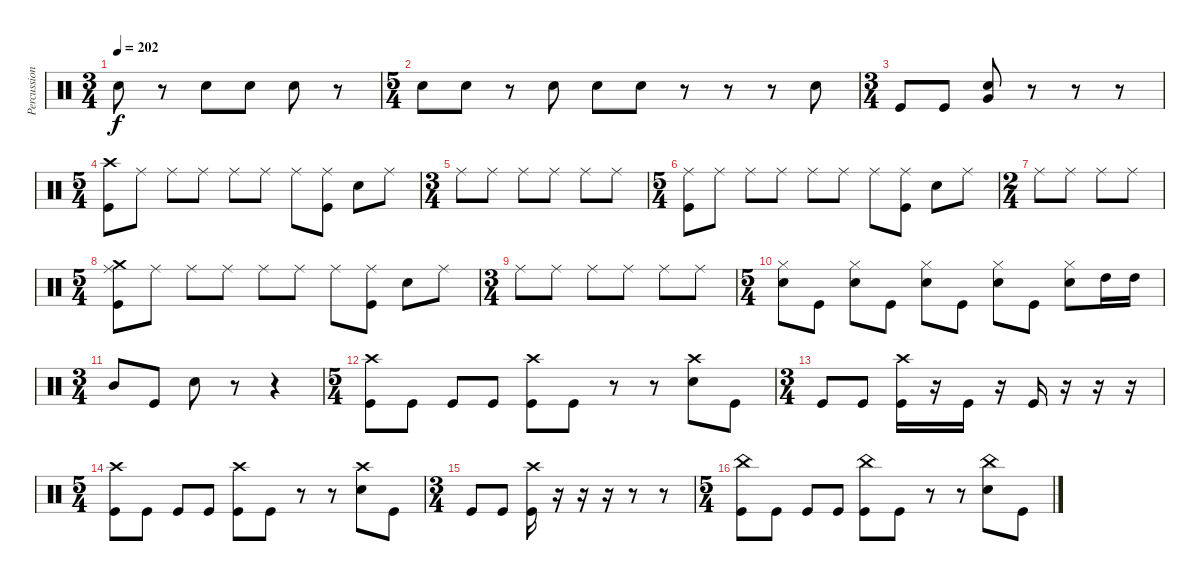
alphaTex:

\track ("Percussion" "Percussion") {instrument percussion}
\staff {score}
\articulation defaults
\ts (3 4)
\tempo 202
\clef neutral
\ks c "Snare (hit) 2".8{dy f}
r.8 "Snare (hit) 2".8 "Snare (hit) 2".8 "Snare (hit) 2".8 r.8 |
\ts (5 4)
"Snare (hit) 2".8 "Snare (hit) 2".8 r.8 "Snare (hit) 2".8 "Snare (hit) 2".8 "Snare (hit) 2".8 r.8 r.8 r.8 "Snare (hit) 2".8 |
\ts (3 4)
"Kick (hit)".8 "Kick (hit)".8 ("Very Low Tom (hit)" "Snare (hit) 2").8 r.8 r.8 r.8 |
\ts (5 4)
("Crash high (hit)" "Kick (hit)").8 "Ride (middle)".8 "Ride (middle)".8 "Ride (middle)".8 "Ride (middle)".8 "Ride (middle)".8 "Ride (middle)".8 ("Ride (middle)" "Kick (hit)").8 "Snare (hit) 2".8 "Ride (middle)".8 |
\ts (3 4)
"Ride (middle)".8 "Ride (middle)".8 "Ride (middle)".8 "Ride (middle)".8 "Ride (middle)".8 "Ride (middle)".8 |
\ts (5 4)
("Ride (middle)" "Kick (hit)").8 "Ride (middle)".8 "Ride (middle)".8 "Ride (middle)".8 "Ride (middle)".8 "Ride (middle)".8 "Ride (middle)".8 ("Ride (middle)" "Kick (hit)").8 "Snare (hit) 2".8 "Ride (middle)".8 |
\ts (2 4)
"Ride (middle)".8 "Ride (middle)".8 "Ride (middle)".8 "Ride (middle)".8 |
\ts (5 4)
("Crash medium (hit)" "Ride (middle)" "Kick (hit)").8 "Ride (middle)".8 "Ride (middle)".8 "Ride (middle)".8 "Ride (middle)".8 "Ride (middle)".8 "Ride (middle)".8 ("Ride (middle)" "Kick (hit)").8 "Snare (hit) 2".8 "Ride (middle)".8 |
\ts (3 4)
"Ride (middle)".8 "Ride (middle)".8 "Ride (middle)".8 "Ride (middle)".8 "Ride (middle)".8 "Ride (middle)".8 |
\ts (5 4)
("Hi-Hat (closed)" "Snare (hit) 2").8 "Kick (hit)".8 ("Hi-Hat (closed)" "Snare (hit) 2").8 "Kick (hit)".8 ("Hi-Hat (closed)" "Snare (hit) 2").8 "Kick (hit)".8 ("Hi-Hat (closed)" "Snare (hit) 2").8 "Kick (hit)".8 ("Hi-Hat (closed)" "Snare (hit) 2").8 "High Tom (hit)".16 "High Tom (hit)".16 |
\ts (3 4)
"Mid Tom (hit)".8 "Kick (hit)".8 "Snare (hit) 2".8 r.8 r.4 |
\ts (5 4)
("Crash high (hit)" "Kick (hit)").8 "Kick (hit)".8 "Kick (hit)".8 "Kick (hit)".8 ("Crash high (hit)" "Kick (hit)").8 "Kick (hit)".8 r.8 r.8 ("Crash high (hit)" "Snare (hit) 2").8 "Kick (hit)".8 |
\ts (3 4)
"Kick (hit)".8 "Kick (hit)".8 ("Crash high (hit)" "Kick (hit)").16 r.16 "Kick (hit)".16 r.16 "Kick (hit)".16 r.16 r.16 r.16 |
\ts (5 4)
("Crash high (hit)" "Kick (hit)").8 "Kick (hit)".8 "Kick (hit)".8 "Kick (hit)".8 ("Crash high (hit)" "Kick (hit)").8 "Kick (hit)".8 r.8 r.8 ("Crash high (hit)" "Snare (hit) 2").8 "Kick (hit)".8 |
\ts (3 4)
"Kick (hit)".8 "Kick (hit)".8 ("Crash high (hit)" "Kick (hit)").16 r.16 r.16 r.16 r.8 r.8 |
\ts (5 4)
("China (hit)" "Kick (hit)").8 "Kick (hit)".8 "Kick (hit)".8 "Kick (hit)".8 ("China (hit)" "Kick (hit)").8 "Kick (hit)".8 r.8 r.8 ("China (hit)" "Snare (hit) 2").8 "Kick (hit)".8
